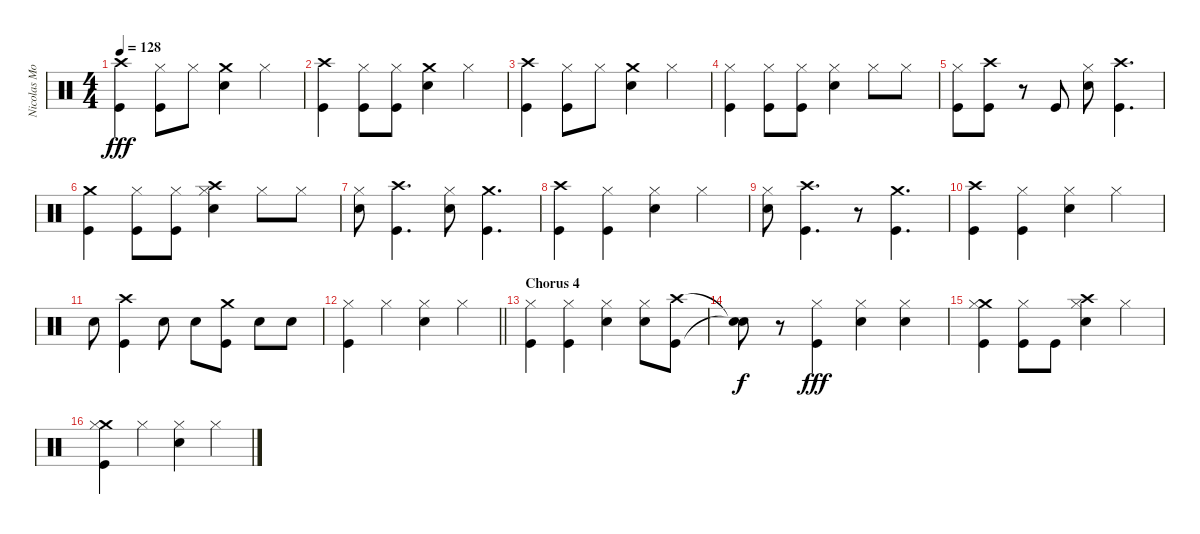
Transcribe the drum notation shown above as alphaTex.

\track ("Nicolas Mosquera" "Nicolas Mo") {mute instrument percussion}
\staff {score}
\articulation defaults
\ts (4 4)
\tempo 128
\clef neutral
\ks c
("Crash high (hit)" "Kick (hit)").4{dy fff} ("Hi-Hat (closed)" "Kick (hit)").8 "Hi-Hat (closed)".8 ("Crash medium (hit)" "Snare (hit) 2").4 "Hi-Hat (closed)".4 |
("Crash high (hit)" "Kick (hit)").4 ("Kick (hit)" "Hi-Hat (closed)").8 ("Kick (hit)" "Hi-Hat (closed)").8 ("Crash medium (hit)" "Snare (hit) 2").4 "Hi-Hat (closed)".4 |
("Crash high (hit)" "Kick (hit)").4 ("Hi-Hat (closed)" "Kick (hit)").8 "Hi-Hat (closed)".8 ("Crash medium (hit)" "Snare (hit) 2").4 "Hi-Hat (closed)".4 |
("Hi-Hat (closed)" "Kick (hit)").4 ("Hi-Hat (closed)" "Kick (hit)").8 ("Hi-Hat (closed)" "Kick (hit)").8 ("Hi-Hat (closed)" "Snare (hit) 2").4 "Hi-Hat (closed)".8 "Hi-Hat (closed)".8 |
("Kick (hit)" "Hi-Hat (closed)").8 ("Crash high (hit)" "Kick (hit)").8 r.8 "Kick (hit)".8 ("Hi-Hat (closed)" "Snare (hit) 2").8 ("Crash high (hit)" "Kick (hit)").4{d} |
("Crash medium (hit)" "Kick (hit)").4 ("Kick (hit)" "Hi-Hat (closed)").8 ("Kick (hit)" "Hi-Hat (closed)").8 ("Hi-Hat (closed)" "Crash high (hit)" "Snare (hit) 2").4 "Hi-Hat (closed)".8 "Hi-Hat (closed)".8 |
("Hi-Hat (closed)" "Snare (hit) 2").8 ("Kick (hit)" "Crash high (hit)").4{d} ("Hi-Hat (closed)" "Snare (hit) 2").8 ("Crash medium (hit)" "Kick (hit)").4{d} |
("Kick (hit)" "Crash high (hit)").4 ("Kick (hit)" "Hi-Hat (closed)").4 ("Snare (hit) 2" "Hi-Hat (closed)").4 "Hi-Hat (closed)".4 |
("Hi-Hat (closed)" "Snare (hit) 2").8 ("Kick (hit)" "Crash high (hit)").4{d} r.8 ("Kick (hit)" "Crash medium (hit)").4{d} |
("Kick (hit)" "Crash high (hit)").4 ("Kick (hit)" "Hi-Hat (closed)").4 ("Snare (hit) 2" "Hi-Hat (closed)").4 "Hi-Hat (closed)".4 |
"Snare (hit) 2".8 ("Kick (hit)" "Crash high (hit)").4 "Snare (hit) 2".8 "Snare (hit) 2".8 ("Kick (hit)" "Crash medium (hit)").8 "Snare (hit) 2".8 "Snare (hit) 2".8 |
\barLineRight lightlight
("Kick (hit)" "Hi-Hat (closed)").4 "Hi-Hat (closed)".4 ("Snare (hit) 2" "Hi-Hat (closed)").4 "Hi-Hat (closed)".4 |
\section ("" "Chorus 4")
("Kick (hit)" "Hi-Hat (closed)").4 ("Kick (hit)" "Hi-Hat (closed)").4 ("Snare (hit) 2" "Hi-Hat (closed)").4 ("Snare (hit) 2" "Hi-Hat (closed)").8 ("Kick (hit)" "Crash high (hit)").8 |
("Snare (hit)"{t} "Snare (hit)"{t}).8{dy f} r.8 ("Kick (hit)" "Hi-Hat (closed)").4{dy fff} ("Snare (hit) 2" "Hi-Hat (closed)").4 ("Snare (hit) 2" "Hi-Hat (closed)").4 |
("Crash medium (hit)" "Kick (hit)" "Hi-Hat (closed)").4 ("Kick (hit)" "Hi-Hat (closed)").8 "Kick (hit)".8 ("Crash high (hit)" "Snare (hit) 2" "Hi-Hat (closed)").4 "Hi-Hat (closed)".4 |
("Crash medium (hit)" "Kick (hit)" "Hi-Hat (closed)").4 "Hi-Hat (closed)".4 ("Snare (hit) 2" "Hi-Hat (closed)").4 "Hi-Hat (closed)".4
